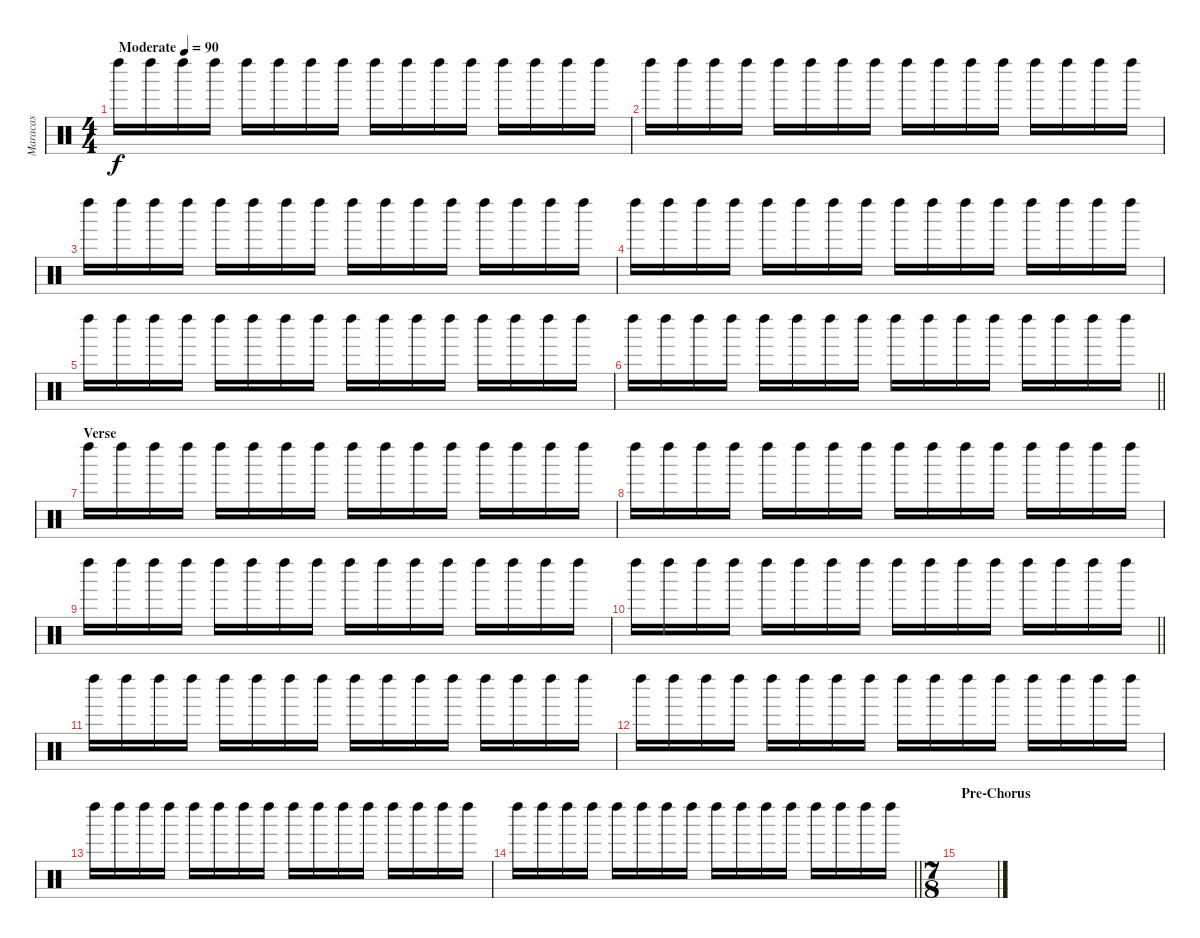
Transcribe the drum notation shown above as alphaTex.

\track ("Maracas" "Maracas") {instrument percussion}
\staff {score}
\articulation defaults
\ts (4 4)
\tempo (90 "Moderate")
\clef neutral
\ks c "Left Maraca (hit)".16{dy f} "Left Maraca (hit)".16 "Left Maraca (hit)".16 "Left Maraca (hit)".16 "Left Maraca (hit)".16 "Left Maraca (hit)".16 "Left Maraca (hit)".16 "Left Maraca (hit)".16 "Left Maraca (hit)".16 "Left Maraca (hit)".16 "Left Maraca (hit)".16 "Left Maraca (hit)".16 "Left Maraca (hit)".16 "Left Maraca (hit)".16 "Left Maraca (hit)".16 "Left Maraca (hit)".16
|
"Left Maraca (hit)".16 "Left Maraca (hit)".16 "Left Maraca (hit)".16 "Left Maraca (hit)".16 "Left Maraca (hit)".16 "Left Maraca (hit)".16 "Left Maraca (hit)".16 "Left Maraca (hit)".16 "Left Maraca (hit)".16 "Left Maraca (hit)".16 "Left Maraca (hit)".16 "Left Maraca (hit)".16 "Left Maraca (hit)".16 "Left Maraca (hit)".16 "Left Maraca (hit)".16 "Left Maraca (hit)".16 |
"Left Maraca (hit)".16 "Left Maraca (hit)".16 "Left Maraca (hit)".16 "Left Maraca (hit)".16 "Left Maraca (hit)".16 "Left Maraca (hit)".16 "Left Maraca (hit)".16 "Left Maraca (hit)".16 "Left Maraca (hit)".16 "Left Maraca (hit)".16 "Left Maraca (hit)".16 "Left Maraca (hit)".16 "Left Maraca (hit)".16 "Left Maraca (hit)".16 "Left Maraca (hit)".16 "Left Maraca (hit)".16 |
"Left Maraca (hit)".16 "Left Maraca (hit)".16 "Left Maraca (hit)".16 "Left Maraca (hit)".16 "Left Maraca (hit)".16 "Left Maraca (hit)".16 "Left Maraca (hit)".16 "Left Maraca (hit)".16 "Left Maraca (hit)".16 "Left Maraca (hit)".16 "Left Maraca (hit)".16 "Left Maraca (hit)".16 "Left Maraca (hit)".16 "Left Maraca (hit)".16 "Left Maraca (hit)".16 "Left Maraca (hit)".16 |
"Left Maraca (hit)".16 "Left Maraca (hit)".16 "Left Maraca (hit)".16 "Left Maraca (hit)".16 "Left Maraca (hit)".16 "Left Maraca (hit)".16 "Left Maraca (hit)".16 "Left Maraca (hit)".16 "Left Maraca (hit)".16 "Left Maraca (hit)".16 "Left Maraca (hit)".16 "Left Maraca (hit)".16 "Left Maraca (hit)".16 "Left Maraca (hit)".16 "Left Maraca (hit)".16 "Left Maraca (hit)".16 |
\barLineRight lightlight "Left Maraca (hit)".16 "Left Maraca (hit)".16 "Left Maraca (hit)".16 "Left Maraca (hit)".16 "Left Maraca (hit)".16 "Left Maraca (hit)".16 "Left Maraca (hit)".16 "Left Maraca (hit)".16 "Left Maraca (hit)".16 "Left Maraca (hit)".16 "Left Maraca (hit)".16 "Left Maraca (hit)".16 "Left Maraca (hit)".16 "Left Maraca (hit)".16 "Left Maraca (hit)".16 "Left Maraca (hit)".16
|
\section ("" "Verse")
"Left Maraca (hit)".16 "Left Maraca (hit)".16 "Left Maraca (hit)".16 "Left Maraca (hit)".16 "Left Maraca (hit)".16 "Left Maraca (hit)".16 "Left Maraca (hit)".16 "Left Maraca (hit)".16 "Left Maraca (hit)".16 "Left Maraca (hit)".16 "Left Maraca (hit)".16 "Left Maraca (hit)".16 "Left Maraca (hit)".16 "Left Maraca (hit)".16 "Left Maraca (hit)".16 "Left Maraca (hit)".16 |
"Left Maraca (hit)".16 "Left Maraca (hit)".16 "Left Maraca (hit)".16 "Left Maraca (hit)".16 "Left Maraca (hit)".16 "Left Maraca (hit)".16 "Left Maraca (hit)".16 "Left Maraca (hit)".16 "Left Maraca (hit)".16 "Left Maraca (hit)".16 "Left Maraca (hit)".16 "Left Maraca (hit)".16 "Left Maraca (hit)".16 "Left Maraca (hit)".16 "Left Maraca (hit)".16 "Left Maraca (hit)".16 |
"Left Maraca (hit)".16 "Left Maraca (hit)".16 "Left Maraca (hit)".16 "Left Maraca (hit)".16 "Left Maraca (hit)".16 "Left Maraca (hit)".16 "Left Maraca (hit)".16 "Left Maraca (hit)".16 "Left Maraca (hit)".16 "Left Maraca (hit)".16 "Left Maraca (hit)".16 "Left Maraca (hit)".16 "Left Maraca (hit)".16 "Left Maraca (hit)".16 "Left Maraca (hit)".16 "Left Maraca (hit)".16 |
\barLineRight lightlight "Left Maraca (hit)".16 "Left Maraca (hit)".16 "Left Maraca (hit)".16 "Left Maraca (hit)".16 "Left Maraca (hit)".16 "Left Maraca (hit)".16 "Left Maraca (hit)".16 "Left Maraca (hit)".16 "Left Maraca (hit)".16 "Left Maraca (hit)".16 "Left Maraca (hit)".16 "Left Maraca (hit)".16 "Left Maraca (hit)".16 "Left Maraca (hit)".16 "Left Maraca (hit)".16 "Left Maraca (hit)".16
|
"Left Maraca (hit)".16 "Left Maraca (hit)".16 "Left Maraca (hit)".16 "Left Maraca (hit)".16 "Left Maraca (hit)".16 "Left Maraca (hit)".16 "Left Maraca (hit)".16 "Left Maraca (hit)".16 "Left Maraca (hit)".16 "Left Maraca (hit)".16 "Left Maraca (hit)".16 "Left Maraca (hit)".16 "Left Maraca (hit)".16 "Left Maraca (hit)".16 "Left Maraca (hit)".16 "Left Maraca (hit)".16 |
"Left Maraca (hit)".16 "Left Maraca (hit)".16 "Left Maraca (hit)".16 "Left Maraca (hit)".16 "Left Maraca (hit)".16 "Left Maraca (hit)".16 "Left Maraca (hit)".16 "Left Maraca (hit)".16 "Left Maraca (hit)".16 "Left Maraca (hit)".16 "Left Maraca (hit)".16 "Left Maraca (hit)".16 "Left Maraca (hit)".16 "Left Maraca (hit)".16 "Left Maraca (hit)".16 "Left Maraca (hit)".16 |
"Left Maraca (hit)".16 "Left Maraca (hit)".16 "Left Maraca (hit)".16 "Left Maraca (hit)".16 "Left Maraca (hit)".16 "Left Maraca (hit)".16 "Left Maraca (hit)".16 "Left Maraca (hit)".16 "Left Maraca (hit)".16 "Left Maraca (hit)".16 "Left Maraca (hit)".16 "Left Maraca (hit)".16 "Left Maraca (hit)".16 "Left Maraca (hit)".16 "Left Maraca (hit)".16 "Left Maraca (hit)".16 |
\barLineRight lightlight "Left Maraca (hit)".16 "Left Maraca (hit)".16 "Left Maraca (hit)".16 "Left Maraca (hit)".16 "Left Maraca (hit)".16 "Left Maraca (hit)".16 "Left Maraca (hit)".16 "Left Maraca (hit)".16 "Left Maraca (hit)".16 "Left Maraca (hit)".16 "Left Maraca (hit)".16 "Left Maraca (hit)".16 "Left Maraca (hit)".16 "Left Maraca (hit)".16 "Left Maraca (hit)".16 "Left Maraca (hit)".16
|
\ts (7 8)
\section ("" "Pre-Chorus")
